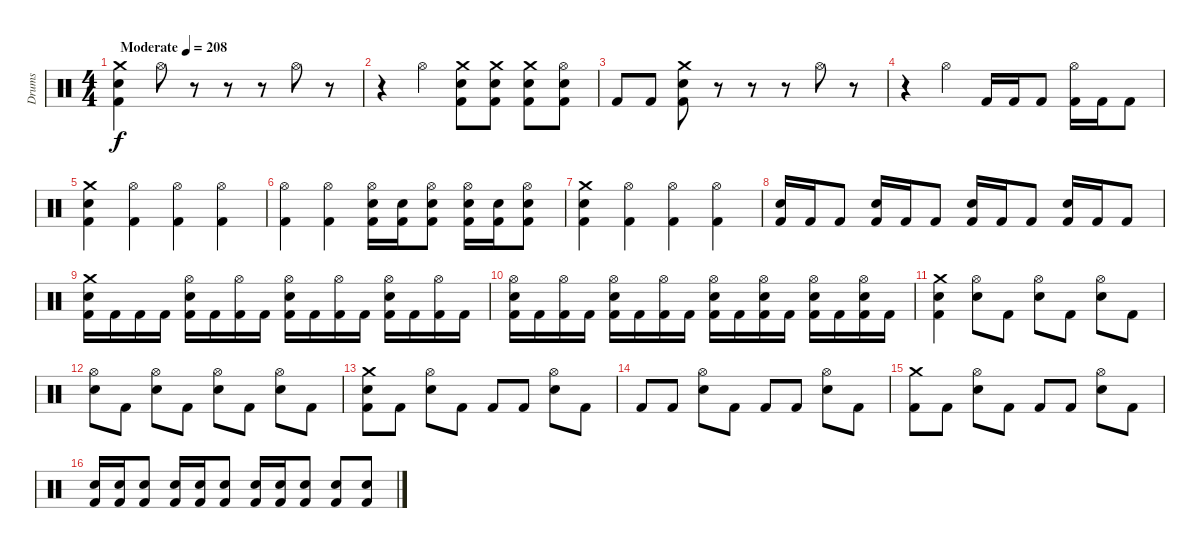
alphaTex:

\track ("Drums" "Drums") {instrument percussion}
\staff {score}
\articulation defaults
\ts (4 4)
\tempo (208 "Moderate")
\clef neutral
\ks c
("Crash medium (hit)" "Electric Snare (hit)" "Kick (hit) 2").4{dy f} "Hi-Hat (open)".8 r.8 r.8 r.8 "Hi-Hat (open)".8 r.8 |
r.4 "Hi-Hat (open)".4 ("Crash medium (hit)" "Electric Snare (hit)" "Kick (hit) 2").8 ("Crash medium (hit)" "Electric Snare (hit)" "Kick (hit) 2").8 ("Crash medium (hit)" "Electric Snare (hit)" "Kick (hit) 2").8 ("Hi-Hat (open)" "Electric Snare (hit)" "Kick (hit) 2").8 |
"Kick (hit) 2".8 "Kick (hit) 2".8 ("Crash medium (hit)" "Electric Snare (hit)" "Kick (hit) 2").8 r.8 r.8 r.8 "Hi-Hat (open)".8 r.8 |
r.4 "Hi-Hat (open)".4 "Kick (hit) 2".16 "Kick (hit) 2".16 "Kick (hit) 2".8 ("Hi-Hat (open)" "Kick (hit) 2").16 "Kick (hit) 2".16 "Kick (hit) 2".8 |
("Crash medium (hit)" "Electric Snare (hit)" "Kick (hit) 2").4 ("Hi-Hat (open)" "Kick (hit) 2").4 ("Hi-Hat (open)" "Kick (hit) 2").4 ("Hi-Hat (open)" "Kick (hit) 2").4 |
("Hi-Hat (open)" "Kick (hit) 2").4 ("Hi-Hat (open)" "Kick (hit) 2").4 ("Hi-Hat (open)" "Electric Snare (hit)" "Kick (hit) 2").16 ("Electric Snare (hit)" "Kick (hit) 2").16 ("Hi-Hat (open)" "Electric Snare (hit)" "Kick (hit) 2").8 ("Hi-Hat (open)" "Electric Snare (hit)" "Kick (hit) 2").16 ("Electric Snare (hit)" "Kick (hit) 2").16 ("Hi-Hat (open)" "Electric Snare (hit)" "Kick (hit) 2").8 |
("Crash medium (hit)" "Electric Snare (hit)" "Kick (hit) 2").4 ("Hi-Hat (open)" "Kick (hit) 2").4 ("Hi-Hat (open)" "Kick (hit) 2").4 ("Hi-Hat (open)" "Kick (hit) 2").4 |
("Electric Snare (hit)" "Kick (hit) 2").16 "Kick (hit) 2".16 "Kick (hit) 2".8 ("Electric Snare (hit)" "Kick (hit) 2").16 "Kick (hit) 2".16 "Kick (hit) 2".8 ("Electric Snare (hit)" "Kick (hit) 2").16 "Kick (hit) 2".16 "Kick (hit) 2".8 ("Electric Snare (hit)" "Kick (hit) 2").16 "Kick (hit) 2".16 "Kick (hit) 2".8 |
("Crash medium (hit)" "Electric Snare (hit)" "Kick (hit) 2").16 "Kick (hit) 2".16 "Kick (hit) 2".16 "Kick (hit) 2".16 ("Hi-Hat (open)" "Electric Snare (hit)" "Kick (hit) 2").16 "Kick (hit) 2".16 ("Hi-Hat (open)" "Kick (hit) 2").16 "Kick (hit) 2".16 ("Hi-Hat (open)" "Electric Snare (hit)" "Kick (hit) 2").16 "Kick (hit) 2".16 ("Hi-Hat (open)" "Kick (hit) 2").16 "Kick (hit) 2".16 ("Hi-Hat (open)" "Electric Snare (hit)" "Kick (hit) 2").16 "Kick (hit) 2".16 ("Hi-Hat (open)" "Kick (hit) 2").16 "Kick (hit) 2".16 |
("Hi-Hat (open)" "Electric Snare (hit)" "Kick (hit) 2").16 "Kick (hit) 2".16 ("Hi-Hat (open)" "Kick (hit) 2").16 "Kick (hit) 2".16 ("Hi-Hat (open)" "Electric Snare (hit)" "Kick (hit) 2").16 "Kick (hit) 2".16 ("Hi-Hat (open)" "Kick (hit) 2").16 "Kick (hit) 2".16 ("Hi-Hat (open)" "Electric Snare (hit)" "Kick (hit) 2").16 "Kick (hit) 2".16 ("Hi-Hat (open)" "Electric Snare (hit)" "Kick (hit) 2").16 "Kick (hit) 2".16 ("Hi-Hat (open)" "Electric Snare (hit)" "Kick (hit) 2").16 "Kick (hit) 2".16 ("Hi-Hat (open)" "Electric Snare (hit)" "Kick (hit) 2").16 "Kick (hit) 2".16 |
("Crash medium (hit)" "Electric Snare (hit)" "Kick (hit) 2").4 ("Hi-Hat (open)" "Electric Snare (hit)").8 "Kick (hit) 2".8 ("Hi-Hat (open)" "Electric Snare (hit)").8 "Kick (hit) 2".8 ("Hi-Hat (open)" "Electric Snare (hit)").8 "Kick (hit) 2".8 |
("Hi-Hat (open)" "Electric Snare (hit)").8 "Kick (hit) 2".8 ("Hi-Hat (open)" "Electric Snare (hit)").8 "Kick (hit) 2".8 ("Hi-Hat (open)" "Electric Snare (hit)").8 "Kick (hit) 2".8 ("Hi-Hat (open)" "Electric Snare (hit)").8 "Kick (hit) 2".8 |
("Crash medium (hit)" "Electric Snare (hit)" "Kick (hit) 2").8 "Kick (hit) 2".8 ("Hi-Hat (open)" "Electric Snare (hit)").8 "Kick (hit) 2".8 "Kick (hit) 2".8 "Kick (hit) 2".8 ("Hi-Hat (open)" "Electric Snare (hit)").8 "Kick (hit) 2".8 |
"Kick (hit) 2".8 "Kick (hit) 2".8 ("Hi-Hat (open)" "Electric Snare (hit)").8 "Kick (hit) 2".8 "Kick (hit) 2".8 "Kick (hit) 2".8 ("Hi-Hat (open)" "Electric Snare (hit)").8 "Kick (hit) 2".8 |
("Crash medium (hit)" "Kick (hit) 2").8 "Kick (hit) 2".8 ("Hi-Hat (open)" "Electric Snare (hit)").8 "Kick (hit) 2".8 "Kick (hit) 2".8 "Kick (hit) 2".8 ("Hi-Hat (open)" "Electric Snare (hit)").8 "Kick (hit) 2".8 |
("Electric Snare (hit)" "Kick (hit) 2").16 ("Electric Snare (hit)" "Kick (hit) 2").16 ("Electric Snare (hit)" "Kick (hit) 2").8 ("Electric Snare (hit)" "Kick (hit) 2").16 ("Electric Snare (hit)" "Kick (hit) 2").16 ("Electric Snare (hit)" "Kick (hit) 2").8 ("Electric Snare (hit)" "Kick (hit) 2").16 ("Electric Snare (hit)" "Kick (hit) 2").16 ("Electric Snare (hit)" "Kick (hit) 2").8 ("Electric Snare (hit)" "Kick (hit) 2").8 ("Electric Snare (hit)" "Kick (hit) 2").8
